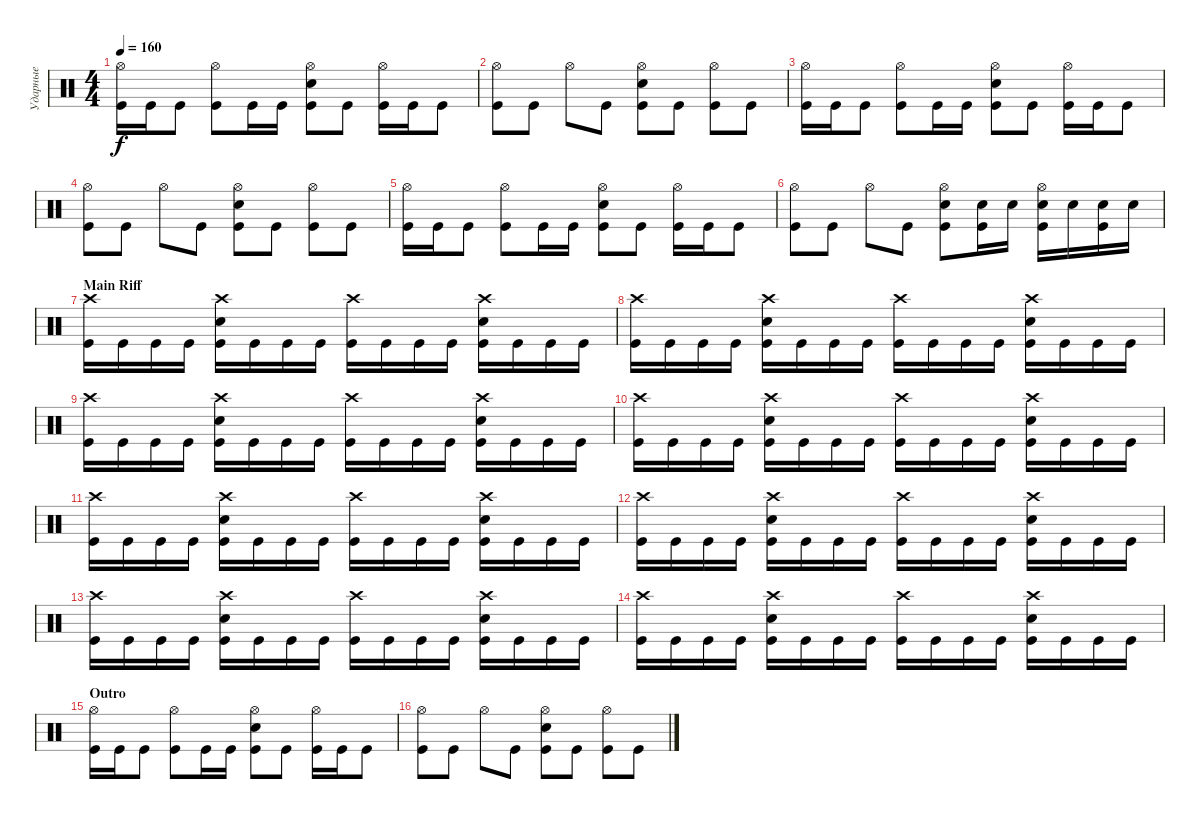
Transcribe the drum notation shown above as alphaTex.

\track ("Ударные" "Ударные") {instrument percussion}
\staff {score}
\articulation defaults
\ts (4 4)
\tempo 160
\clef neutral
\ks c
("Hi-Hat (open)" "Kick (hit)").16{dy f} "Kick (hit)".16 "Kick (hit)".8 ("Hi-Hat (open)" "Kick (hit)").8 "Kick (hit)".16 "Kick (hit)".16 ("Hi-Hat (open)" "Snare (hit) 2" "Kick (hit)").8 "Kick (hit)".8 ("Hi-Hat (open)" "Kick (hit)").16 "Kick (hit)".16 "Kick (hit)".8 |
("Hi-Hat (open)" "Kick (hit)").8 "Kick (hit)".8 "Hi-Hat (open)".8 "Kick (hit)".8 ("Hi-Hat (open)" "Snare (hit) 2" "Kick (hit)").8 "Kick (hit)".8 ("Hi-Hat (open)" "Kick (hit)").8 "Kick (hit)".8 |
("Hi-Hat (open)" "Kick (hit)").16 "Kick (hit)".16 "Kick (hit)".8 ("Hi-Hat (open)" "Kick (hit)").8 "Kick (hit)".16 "Kick (hit)".16 ("Hi-Hat (open)" "Snare (hit) 2" "Kick (hit)").8 "Kick (hit)".8 ("Hi-Hat (open)" "Kick (hit)").16 "Kick (hit)".16 "Kick (hit)".8 |
("Hi-Hat (open)" "Kick (hit)").8 "Kick (hit)".8 "Hi-Hat (open)".8 "Kick (hit)".8 ("Hi-Hat (open)" "Snare (hit) 2" "Kick (hit)").8 "Kick (hit)".8 ("Hi-Hat (open)" "Kick (hit)").8 "Kick (hit)".8 |
("Hi-Hat (open)" "Kick (hit)").16 "Kick (hit)".16 "Kick (hit)".8 ("Hi-Hat (open)" "Kick (hit)").8 "Kick (hit)".16 "Kick (hit)".16 ("Hi-Hat (open)" "Snare (hit) 2" "Kick (hit)").8 "Kick (hit)".8 ("Hi-Hat (open)" "Kick (hit)").16 "Kick (hit)".16 "Kick (hit)".8 |
("Hi-Hat (open)" "Kick (hit)").8 "Kick (hit)".8 "Hi-Hat (open)".8 "Kick (hit)".8 ("Hi-Hat (open)" "Snare (hit) 2" "Kick (hit)").8 ("Snare (hit) 2" "Kick (hit)").16 "Snare (hit) 2".16 ("Hi-Hat (open)" "Snare (hit) 2" "Kick (hit)").16 "Snare (hit) 2".16 ("Snare (hit) 2" "Kick (hit)").16 "Snare (hit) 2".16 |
\section ("" "Main Riff")
("Crash high (hit)" "Kick (hit)").16 "Kick (hit)".16 "Kick (hit)".16 "Kick (hit)".16 ("Crash high (hit)" "Snare (hit) 2" "Kick (hit)").16 "Kick (hit)".16 "Kick (hit)".16 "Kick (hit)".16 ("Crash high (hit)" "Kick (hit)").16 "Kick (hit)".16 "Kick (hit)".16 "Kick (hit)".16 ("Crash high (hit)" "Snare (hit) 2" "Kick (hit)").16 "Kick (hit)".16 "Kick (hit)".16 "Kick (hit)".16 |
("Crash high (hit)" "Kick (hit)").16 "Kick (hit)".16 "Kick (hit)".16 "Kick (hit)".16 ("Crash high (hit)" "Snare (hit) 2" "Kick (hit)").16 "Kick (hit)".16 "Kick (hit)".16 "Kick (hit)".16 ("Crash high (hit)" "Kick (hit)").16 "Kick (hit)".16 "Kick (hit)".16 "Kick (hit)".16 ("Crash high (hit)" "Snare (hit) 2" "Kick (hit)").16 "Kick (hit)".16 "Kick (hit)".16 "Kick (hit)".16 |
("Crash high (hit)" "Kick (hit)").16 "Kick (hit)".16 "Kick (hit)".16 "Kick (hit)".16 ("Crash high (hit)" "Snare (hit) 2" "Kick (hit)").16 "Kick (hit)".16 "Kick (hit)".16 "Kick (hit)".16 ("Crash high (hit)" "Kick (hit)").16 "Kick (hit)".16 "Kick (hit)".16 "Kick (hit)".16 ("Crash high (hit)" "Snare (hit) 2" "Kick (hit)").16 "Kick (hit)".16 "Kick (hit)".16 "Kick (hit)".16 |
("Crash high (hit)" "Kick (hit)").16 "Kick (hit)".16 "Kick (hit)".16 "Kick (hit)".16 ("Crash high (hit)" "Snare (hit) 2" "Kick (hit)").16 "Kick (hit)".16 "Kick (hit)".16 "Kick (hit)".16 ("Crash high (hit)" "Kick (hit)").16 "Kick (hit)".16 "Kick (hit)".16 "Kick (hit)".16 ("Crash high (hit)" "Snare (hit) 2" "Kick (hit)").16 "Kick (hit)".16 "Kick (hit)".16 "Kick (hit)".16 |
("Crash high (hit)" "Kick (hit)").16 "Kick (hit)".16 "Kick (hit)".16 "Kick (hit)".16 ("Crash high (hit)" "Snare (hit) 2" "Kick (hit)").16 "Kick (hit)".16 "Kick (hit)".16 "Kick (hit)".16 ("Crash high (hit)" "Kick (hit)").16 "Kick (hit)".16 "Kick (hit)".16 "Kick (hit)".16 ("Crash high (hit)" "Snare (hit) 2" "Kick (hit)").16 "Kick (hit)".16 "Kick (hit)".16 "Kick (hit)".16 |
("Crash high (hit)" "Kick (hit)").16 "Kick (hit)".16 "Kick (hit)".16 "Kick (hit)".16 ("Crash high (hit)" "Snare (hit) 2" "Kick (hit)").16 "Kick (hit)".16 "Kick (hit)".16 "Kick (hit)".16 ("Crash high (hit)" "Kick (hit)").16 "Kick (hit)".16 "Kick (hit)".16 "Kick (hit)".16 ("Crash high (hit)" "Snare (hit) 2" "Kick (hit)").16 "Kick (hit)".16 "Kick (hit)".16 "Kick (hit)".16 |
("Crash high (hit)" "Kick (hit)").16 "Kick (hit)".16 "Kick (hit)".16 "Kick (hit)".16 ("Crash high (hit)" "Snare (hit) 2" "Kick (hit)").16 "Kick (hit)".16 "Kick (hit)".16 "Kick (hit)".16 ("Crash high (hit)" "Kick (hit)").16 "Kick (hit)".16 "Kick (hit)".16 "Kick (hit)".16 ("Crash high (hit)" "Snare (hit) 2" "Kick (hit)").16 "Kick (hit)".16 "Kick (hit)".16 "Kick (hit)".16 |
("Crash high (hit)" "Kick (hit)").16 "Kick (hit)".16 "Kick (hit)".16 "Kick (hit)".16 ("Crash high (hit)" "Snare (hit) 2" "Kick (hit)").16 "Kick (hit)".16 "Kick (hit)".16 "Kick (hit)".16 ("Crash high (hit)" "Kick (hit)").16 "Kick (hit)".16 "Kick (hit)".16 "Kick (hit)".16 ("Crash high (hit)" "Snare (hit) 2" "Kick (hit)").16 "Kick (hit)".16 "Kick (hit)".16 "Kick (hit)".16 |
\section ("" "Outro")
("Hi-Hat (open)" "Kick (hit)").16 "Kick (hit)".16 "Kick (hit)".8 ("Hi-Hat (open)" "Kick (hit)").8 "Kick (hit)".16 "Kick (hit)".16 ("Hi-Hat (open)" "Snare (hit) 2" "Kick (hit)").8 "Kick (hit)".8 ("Hi-Hat (open)" "Kick (hit)").16 "Kick (hit)".16 "Kick (hit)".8 |
("Hi-Hat (open)" "Kick (hit)").8 "Kick (hit)".8 "Hi-Hat (open)".8 "Kick (hit)".8 ("Hi-Hat (open)" "Snare (hit) 2" "Kick (hit)").8 "Kick (hit)".8 ("Hi-Hat (open)" "Kick (hit)").8 "Kick (hit)".8
